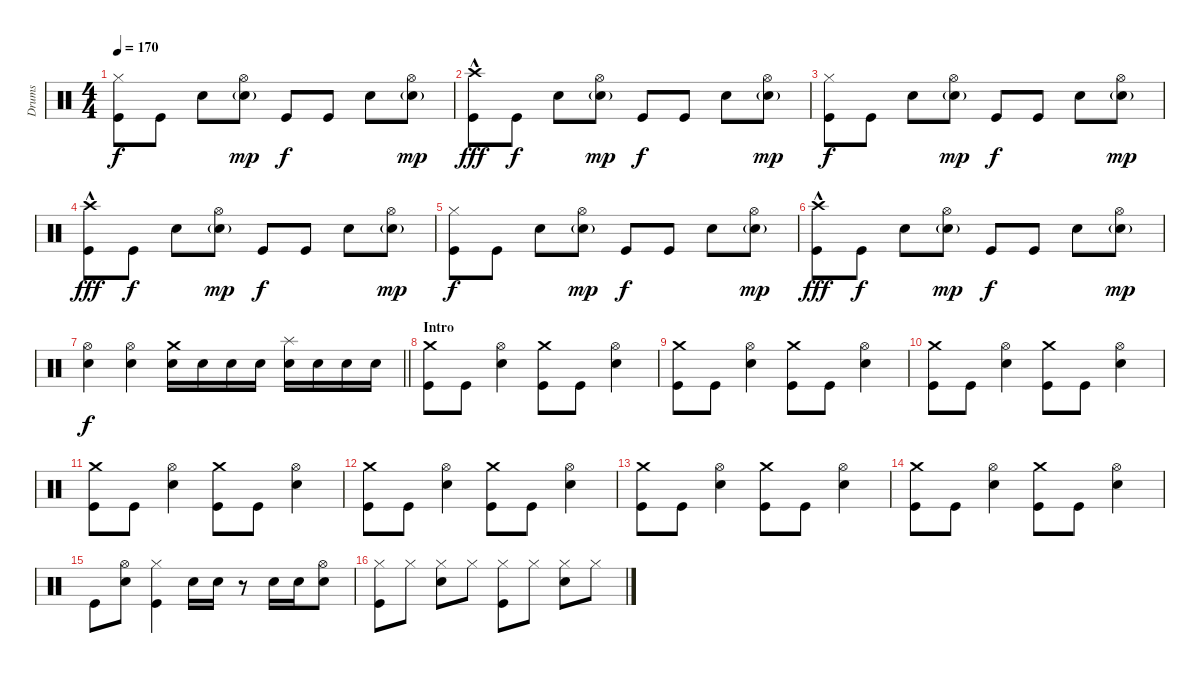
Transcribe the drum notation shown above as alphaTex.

\track ("Drums" "Drums") {instrument percussion}
\staff {score}
\articulation defaults
\ts (4 4)
\tempo 170
\clef neutral
\ks c
("Hi-Hat (closed)" "Kick (hit)").8{dy f} "Kick (hit)".8 "Electric Snare (hit)".8 ("Hi-Hat (open)" "Electric Snare (hit)"{g}).8{dy mp} "Kick (hit)".8{dy f} "Kick (hit)".8 "Electric Snare (hit)".8 ("Hi-Hat (open)" "Electric Snare (hit)"{g}).8{dy mp} |
("Crash high (hit)"{hac} "Kick (hit)").8{dy fff} "Kick (hit)".8{dy f} "Electric Snare (hit)".8 ("Hi-Hat (open)" "Electric Snare (hit)"{g}).8{dy mp} "Kick (hit)".8{dy f} "Kick (hit)".8 "Electric Snare (hit)".8 ("Hi-Hat (open)" "Electric Snare (hit)"{g}).8{dy mp} |
("Hi-Hat (closed)" "Kick (hit)").8{dy f} "Kick (hit)".8 "Electric Snare (hit)".8 ("Hi-Hat (open)" "Electric Snare (hit)"{g}).8{dy mp} "Kick (hit)".8{dy f} "Kick (hit)".8 "Electric Snare (hit)".8 ("Hi-Hat (open)" "Electric Snare (hit)"{g}).8{dy mp} |
("Crash high (hit)"{hac} "Kick (hit)").8{dy fff} "Kick (hit)".8{dy f} "Electric Snare (hit)".8 ("Hi-Hat (open)" "Electric Snare (hit)"{g}).8{dy mp} "Kick (hit)".8{dy f} "Kick (hit)".8 "Electric Snare (hit)".8 ("Hi-Hat (open)" "Electric Snare (hit)"{g}).8{dy mp} |
("Hi-Hat (closed)" "Kick (hit)").8{dy f} "Kick (hit)".8 "Electric Snare (hit)".8 ("Hi-Hat (open)" "Electric Snare (hit)"{g}).8{dy mp} "Kick (hit)".8{dy f} "Kick (hit)".8 "Electric Snare (hit)".8 ("Hi-Hat (open)" "Electric Snare (hit)"{g}).8{dy mp} |
("Crash high (hit)"{hac} "Kick (hit)").8{dy fff} "Kick (hit)".8{dy f} "Electric Snare (hit)".8 ("Hi-Hat (open)" "Electric Snare (hit)"{g}).8{dy mp} "Kick (hit)".8{dy f} "Kick (hit)".8 "Electric Snare (hit)".8 ("Hi-Hat (open)" "Electric Snare (hit)"{g}).8{dy mp} |
\barLineRight lightlight
("Hi-Hat (open)" "Electric Snare (hit)").4{dy f} ("Hi-Hat (open)" "Electric Snare (hit)").4 ("Crash medium (hit)" "Electric Snare (hit)").16 "Electric Snare (hit)".16 "Electric Snare (hit)".16 "Electric Snare (hit)".16 ("Splash (hit)" "Electric Snare (hit)").16 "Electric Snare (hit)".16 "Electric Snare (hit)".16 "Electric Snare (hit)".16 |
\section ("" "Intro")
("Crash medium (hit)" "Kick (hit)").8 "Kick (hit)".8 ("Hi-Hat (open)" "Electric Snare (hit)").4 ("Crash medium (hit)" "Kick (hit)").8 "Kick (hit)".8 ("Hi-Hat (open)" "Electric Snare (hit)").4 |
("Crash medium (hit)" "Kick (hit)").8 "Kick (hit)".8 ("Hi-Hat (open)" "Electric Snare (hit)").4 ("Crash medium (hit)" "Kick (hit)").8 "Kick (hit)".8 ("Hi-Hat (open)" "Electric Snare (hit)").4 |
("Crash medium (hit)" "Kick (hit)").8 "Kick (hit)".8 ("Hi-Hat (open)" "Electric Snare (hit)").4 ("Crash medium (hit)" "Kick (hit)").8 "Kick (hit)".8 ("Hi-Hat (open)" "Electric Snare (hit)").4 |
("Crash medium (hit)" "Kick (hit)").8 "Kick (hit)".8 ("Hi-Hat (open)" "Electric Snare (hit)").4 ("Crash medium (hit)" "Kick (hit)").8 "Kick (hit)".8 ("Hi-Hat (open)" "Electric Snare (hit)").4 |
("Crash medium (hit)" "Kick (hit)").8 "Kick (hit)".8 ("Hi-Hat (open)" "Electric Snare (hit)").4 ("Crash medium (hit)" "Kick (hit)").8 "Kick (hit)".8 ("Hi-Hat (open)" "Electric Snare (hit)").4 |
("Crash medium (hit)" "Kick (hit)").8 "Kick (hit)".8 ("Hi-Hat (open)" "Electric Snare (hit)").4 ("Crash medium (hit)" "Kick (hit)").8 "Kick (hit)".8 ("Hi-Hat (open)" "Electric Snare (hit)").4 |
("Crash medium (hit)" "Kick (hit)").8 "Kick (hit)".8 ("Hi-Hat (open)" "Electric Snare (hit)").4 ("Crash medium (hit)" "Kick (hit)").8 "Kick (hit)".8 ("Hi-Hat (open)" "Electric Snare (hit)").4 |
"Kick (hit)".8 ("Hi-Hat (open)" "Electric Snare (hit)").8 ("Hi-Hat (closed)" "Kick (hit)").4 "Electric Snare (hit)".16 "Electric Snare (hit)".16 r.8 "Electric Snare (hit)".16 "Electric Snare (hit)".16 ("Hi-Hat (open)" "Electric Snare (hit)").8 |
("Hi-Hat (closed)" "Kick (hit)").8 "Hi-Hat (closed)".8 ("Hi-Hat (closed)" "Electric Snare (hit)").8 "Hi-Hat (closed)".8 ("Hi-Hat (closed)" "Kick (hit)").8 "Hi-Hat (closed)".8 ("Hi-Hat (closed)" "Electric Snare (hit)").8 "Hi-Hat (closed)".8
